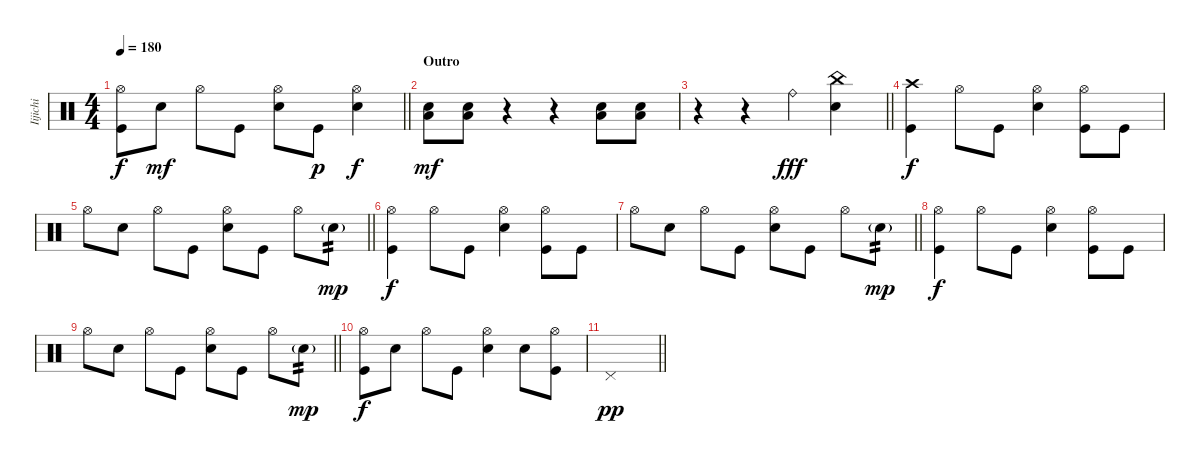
\track ("Iijichi" "Iijichi") {instrument percussion}
\staff {score}
\articulation defaults
\ts (4 4)
\tempo 180
\clef neutral
\barLineRight lightlight
\ks c
("Kick (hit)" "Hi-Hat (open)").8{dy f} "Electric Snare (hit)".8{dy mf} "Hi-Hat (open)".8 "Kick (hit)".8 ("Hi-Hat (open)" "Electric Snare (hit)").8 "Kick (hit)".8{dy p} ("Electric Snare (hit)" "Hi-Hat (open)").4{dy f} |
\section ("" "Outro")
("Electric Snare (hit)" "Low Floor Tom (hit)").8{dy mf} ("Electric Snare (hit)" "Low Floor Tom (hit)").8 r.4 r.4 ("Electric Snare (hit)" "Low Floor Tom (hit)").8 ("Electric Snare (hit)" "Low Floor Tom (hit)").8 |
\barLineRight lightlight
r.4 r.4 "Ride (bell)".4{dy fff volume 14} ("Electric Snare (hit)" "China (hit)").4{volume 12} |
("Crash high (hit)" "Kick (hit)").4{dy f} "Hi-Hat (open)".8 "Kick (hit)".8 ("Hi-Hat (open)" "Electric Snare (hit)").4 ("Hi-Hat (open)" "Kick (hit)").8 "Kick (hit)".8 |
\barLineRight lightlight "Hi-Hat (open)".8 "Electric Snare (hit)".8 "Hi-Hat (open)".8 "Kick (hit)".8
("Hi-Hat (open)" "Electric Snare (hit)").8 "Kick (hit)".8 "Hi-Hat (open)".8 "Electric Snare (hit)"{g}.8{tp 2 dy mp} |
("Hi-Hat (open)" "Kick (hit)").4{dy f} "Hi-Hat (open)".8 "Kick (hit)".8 ("Hi-Hat (open)" "Electric Snare (hit)").4 ("Hi-Hat (open)" "Kick (hit)").8 "Kick (hit)".8 |
\barLineRight lightlight "Hi-Hat (open)".8 "Electric Snare (hit)".8 "Hi-Hat (open)".8 "Kick (hit)".8
("Hi-Hat (open)" "Electric Snare (hit)").8 "Kick (hit)".8 "Hi-Hat (open)".8 "Electric Snare (hit)"{g}.8{tp 2 dy mp} |
("Hi-Hat (open)" "Kick (hit)").4{dy f} "Hi-Hat (open)".8 "Kick (hit)".8 ("Hi-Hat (open)" "Electric Snare (hit)").4 ("Hi-Hat (open)" "Kick (hit)").8 "Kick (hit)".8 |
\barLineRight lightlight "Hi-Hat (open)".8 "Electric Snare (hit)".8 "Hi-Hat (open)".8 "Kick (hit)".8
("Hi-Hat (open)" "Electric Snare (hit)").8 "Kick (hit)".8 "Hi-Hat (open)".8 "Electric Snare (hit)"{g}.8{tp 2 dy mp} |
("Hi-Hat (open)" "Kick (hit)").8{dy f} "Electric Snare (hit)".8 "Hi-Hat (open)".8 "Kick (hit)".8 ("Hi-Hat (open)" "Electric Snare (hit)").4 "Electric Snare (hit)".8 ("Kick (hit)" "Hi-Hat (open)").8 |
\barLineRight lightlight "Pedal Hi-Hat (hit)".1{dy pp}
